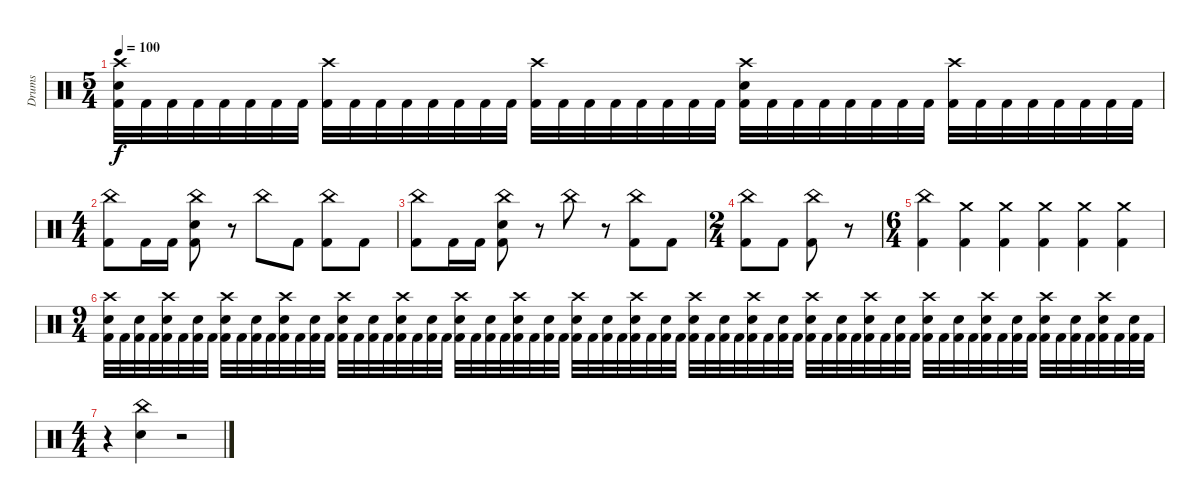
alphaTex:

\track ("Drums" "Drums") {instrument percussion}
\staff {score}
\articulation defaults
\ts (5 4)
\tempo 100
\clef neutral
\ks c
("Crash high (hit)" "Snare (hit) 2" "Kick (hit) 2").32{dy f} "Kick (hit) 2".32 "Kick (hit) 2".32 "Kick (hit) 2".32 "Kick (hit) 2".32 "Kick (hit) 2".32 "Kick (hit) 2".32 "Kick (hit) 2".32 ("Crash high (hit)" "Kick (hit) 2").32 "Kick (hit) 2".32 "Kick (hit) 2".32 "Kick (hit) 2".32 "Kick (hit) 2".32 "Kick (hit) 2".32 "Kick (hit) 2".32 "Kick (hit) 2".32 ("Crash high (hit)" "Kick (hit) 2").32 "Kick (hit) 2".32 "Kick (hit) 2".32 "Kick (hit) 2".32 "Kick (hit) 2".32 "Kick (hit) 2".32 "Kick (hit) 2".32 "Kick (hit) 2".32 ("Crash high (hit)" "Snare (hit) 2" "Kick (hit) 2").32 "Kick (hit) 2".32 "Kick (hit) 2".32 "Kick (hit) 2".32 "Kick (hit) 2".32 "Kick (hit) 2".32 "Kick (hit) 2".32 "Kick (hit) 2".32 ("Crash high (hit)" "Kick (hit) 2").32 "Kick (hit) 2".32 "Kick (hit) 2".32 "Kick (hit) 2".32 "Kick (hit) 2".32 "Kick (hit) 2".32 "Kick (hit) 2".32 "Kick (hit) 2".32 |
\ts (4 4)
("China (hit)" "Kick (hit) 2").8 "Kick (hit) 2".16 "Kick (hit) 2".16 ("China (hit)" "Snare (hit) 2" "Kick (hit) 2").8 r.8 "China (hit)".8 "Kick (hit) 2".8 ("China (hit)" "Kick (hit) 2").8 "Kick (hit) 2".8 |
("China (hit)" "Kick (hit) 2").8 "Kick (hit) 2".16 "Kick (hit) 2".16 ("China (hit)" "Snare (hit) 2" "Kick (hit) 2").8 r.8 "China (hit)".8 r.8 ("China (hit)" "Kick (hit) 2").8 "Kick (hit) 2".8 |
\ts (2 4)
("China (hit)" "Kick (hit) 2").8 "Kick (hit) 2".8 ("China (hit)" "Kick (hit) 2").8 r.8 |
\ts (6 4)
("China (hit)" "Kick (hit) 2").4 ("Crash medium (hit)" "Kick (hit) 2").4 ("Crash medium (hit)" "Kick (hit) 2").4 ("Crash medium (hit)" "Kick (hit) 2").4 ("Crash medium (hit)" "Kick (hit) 2").4 ("Crash medium (hit)" "Kick (hit) 2").4 |
\ts (9 4)
("Crash high (hit)" "Snare (hit) 2" "Kick (hit) 2").32 "Kick (hit) 2".32 ("Snare (hit) 2" "Kick (hit) 2").32 "Kick (hit) 2".32 ("Crash high (hit)" "Snare (hit) 2" "Kick (hit) 2").32 "Kick (hit) 2".32 ("Snare (hit) 2" "Kick (hit) 2").32 "Kick (hit) 2".32 ("Crash high (hit)" "Snare (hit) 2" "Kick (hit) 2").32 "Kick (hit) 2".32 ("Snare (hit) 2" "Kick (hit) 2").32 "Kick (hit) 2".32 ("Crash high (hit)" "Snare (hit) 2" "Kick (hit) 2").32 "Kick (hit) 2".32 ("Snare (hit) 2" "Kick (hit) 2").32 "Kick (hit) 2".32 ("Crash high (hit)" "Snare (hit) 2" "Kick (hit) 2").32 "Kick (hit) 2".32 ("Snare (hit) 2" "Kick (hit) 2").32 "Kick (hit) 2".32 ("Crash high (hit)" "Snare (hit) 2" "Kick (hit) 2").32 "Kick (hit) 2".32 ("Snare (hit) 2" "Kick (hit) 2").32 "Kick (hit) 2".32 ("Crash high (hit)" "Snare (hit) 2" "Kick (hit) 2").32 "Kick (hit) 2".32 ("Snare (hit) 2" "Kick (hit) 2").32 "Kick (hit) 2".32 ("Crash high (hit)" "Snare (hit) 2" "Kick (hit) 2").32 "Kick (hit) 2".32 ("Snare (hit) 2" "Kick (hit) 2").32 "Kick (hit) 2".32 ("Crash high (hit)" "Snare (hit) 2" "Kick (hit) 2").32 "Kick (hit) 2".32 ("Snare (hit) 2" "Kick (hit) 2").32 "Kick (hit) 2".32 ("Crash high (hit)" "Snare (hit) 2" "Kick (hit) 2").32 "Kick (hit) 2".32 ("Snare (hit) 2" "Kick (hit) 2").32 "Kick (hit) 2".32 ("Crash high (hit)" "Snare (hit) 2" "Kick (hit) 2").32 "Kick (hit) 2".32 ("Snare (hit) 2" "Kick (hit) 2").32 "Kick (hit) 2".32 ("Crash high (hit)" "Snare (hit) 2" "Kick (hit) 2").32 "Kick (hit) 2".32 ("Snare (hit) 2" "Kick (hit) 2").32 "Kick (hit) 2".32 ("Crash high (hit)" "Snare (hit) 2" "Kick (hit) 2").32 "Kick (hit) 2".32 ("Snare (hit) 2" "Kick (hit) 2").32 "Kick (hit) 2".32 ("Crash high (hit)" "Snare (hit) 2" "Kick (hit) 2").32 "Kick (hit) 2".32 ("Snare (hit) 2" "Kick (hit) 2").32 "Kick (hit) 2".32 ("Crash high (hit)" "Snare (hit) 2" "Kick (hit) 2").32 "Kick (hit) 2".32 ("Snare (hit) 2" "Kick (hit) 2").32 "Kick (hit) 2".32 ("Crash high (hit)" "Snare (hit) 2" "Kick (hit) 2").32 "Kick (hit) 2".32 ("Snare (hit) 2" "Kick (hit) 2").32 "Kick (hit) 2".32 ("Crash high (hit)" "Snare (hit) 2" "Kick (hit) 2").32 "Kick (hit) 2".32 ("Snare (hit) 2" "Kick (hit) 2").32 "Kick (hit) 2".32 ("Crash high (hit)" "Snare (hit) 2" "Kick (hit) 2").32 "Kick (hit) 2".32 ("Snare (hit) 2" "Kick (hit) 2").32 "Kick (hit) 2".32 |
\ts (4 4)
r.4 ("China (hit)" "Snare (hit) 2").4 r.2
